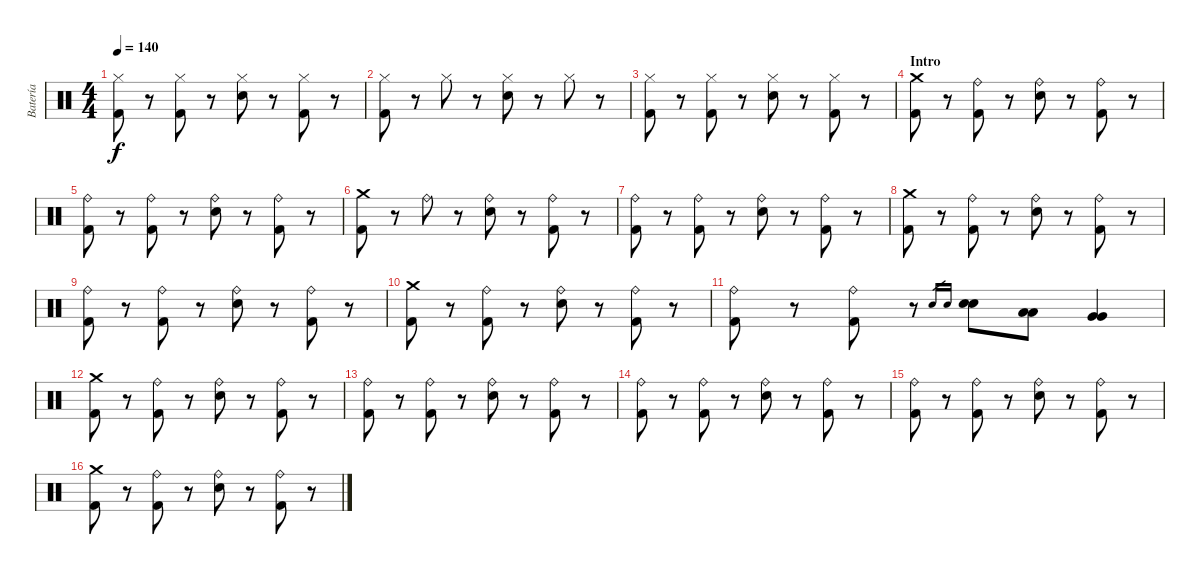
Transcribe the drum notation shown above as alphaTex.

\track ("Batería" "Batería") {instrument percussion}
\staff {score}
\articulation defaults
\ts (4 4)
\tempo 140
\clef neutral
\ks c
("Hi-Hat (closed)" "Kick (hit) 2").8{dy f} r.8 ("Hi-Hat (closed)" "Kick (hit) 2").8 r.8 ("Hi-Hat (closed)" "Snare (hit) 2").8 r.8 ("Hi-Hat (closed)" "Kick (hit) 2").8 r.8 |
("Hi-Hat (closed)" "Kick (hit) 2").8 r.8 "Hi-Hat (closed)".8 r.8 ("Hi-Hat (closed)" "Snare (hit) 2").8 r.8 "Hi-Hat (closed)".8 r.8 |
("Hi-Hat (closed)" "Kick (hit) 2").8 r.8 ("Hi-Hat (closed)" "Kick (hit) 2").8 r.8 ("Hi-Hat (closed)" "Snare (hit) 2").8 r.8 ("Hi-Hat (closed)" "Kick (hit) 2").8 r.8 |
\section ("" "Intro")
("Crash medium (hit)" "Kick (hit) 2").8 r.8 ("Ride (bell)" "Kick (hit) 2").8 r.8 ("Ride (bell)" "Snare (hit) 2").8 r.8 ("Ride (bell)" "Kick (hit) 2").8 r.8 |
("Ride (bell)" "Kick (hit) 2").8 r.8 ("Ride (bell)" "Kick (hit) 2").8 r.8 ("Ride (bell)" "Snare (hit) 2").8 r.8 ("Ride (bell)" "Kick (hit) 2").8 r.8 |
("Crash medium (hit)" "Kick (hit) 2").8 r.8 "Ride (bell)".8 r.8 ("Ride (bell)" "Snare (hit) 2").8 r.8 ("Ride (bell)" "Kick (hit) 2").8 r.8 |
("Ride (bell)" "Kick (hit) 2").8 r.8 ("Ride (bell)" "Kick (hit) 2").8 r.8 ("Ride (bell)" "Snare (hit) 2").8 r.8 ("Ride (bell)" "Kick (hit) 2").8 r.8 |
("Crash medium (hit)" "Kick (hit) 2").8 r.8 ("Ride (bell)" "Kick (hit) 2").8 r.8 ("Ride (bell)" "Snare (hit) 2").8 r.8 ("Ride (bell)" "Kick (hit) 2").8 r.8 |
("Ride (bell)" "Kick (hit) 2").8 r.8 ("Ride (bell)" "Kick (hit) 2").8 r.8 ("Ride (bell)" "Snare (hit) 2").8 r.8 ("Ride (bell)" "Kick (hit) 2").8 r.8 |
("Crash medium (hit)" "Kick (hit) 2").8 r.8 ("Ride (bell)" "Kick (hit) 2").8 r.8 ("Ride (bell)" "Snare (hit) 2").8 r.8 ("Ride (bell)" "Kick (hit) 2").8 r.8 |
("Ride (bell)" "Kick (hit) 2").8 r.8 ("Ride (bell)" "Kick (hit) 2").8 r.8 "Snare (hit) 2".16{gr} "Snare (hit) 2".16{gr} ("Snare (hit) 2" "Snare (hit) 2").8 ("Low Tom (hit)" "Low Tom (hit)").8 ("Very Low Tom (hit)" "Very Low Tom (hit)").4 |
("Crash medium (hit)" "Kick (hit) 2").8 r.8 ("Ride (bell)" "Kick (hit) 2").8 r.8 ("Ride (bell)" "Snare (hit) 2").8 r.8 ("Ride (bell)" "Kick (hit) 2").8 r.8 |
("Ride (bell)" "Kick (hit) 2").8 r.8 ("Ride (bell)" "Kick (hit) 2").8 r.8 ("Ride (bell)" "Snare (hit) 2").8 r.8 ("Ride (bell)" "Kick (hit) 2").8 r.8 |
("Ride (bell)" "Kick (hit) 2").8 r.8 ("Ride (bell)" "Kick (hit) 2").8 r.8 ("Ride (bell)" "Snare (hit) 2").8 r.8 ("Ride (bell)" "Kick (hit) 2").8 r.8 |
("Ride (bell)" "Kick (hit) 2").8 r.8 ("Ride (bell)" "Kick (hit) 2").8 r.8 ("Ride (bell)" "Snare (hit) 2").8 r.8 ("Ride (bell)" "Kick (hit) 2").8 r.8 |
("Crash medium (hit)" "Kick (hit) 2").8 r.8 ("Ride (bell)" "Kick (hit) 2").8 r.8 ("Ride (bell)" "Snare (hit) 2").8 r.8 ("Ride (bell)" "Kick (hit) 2").8 r.8
